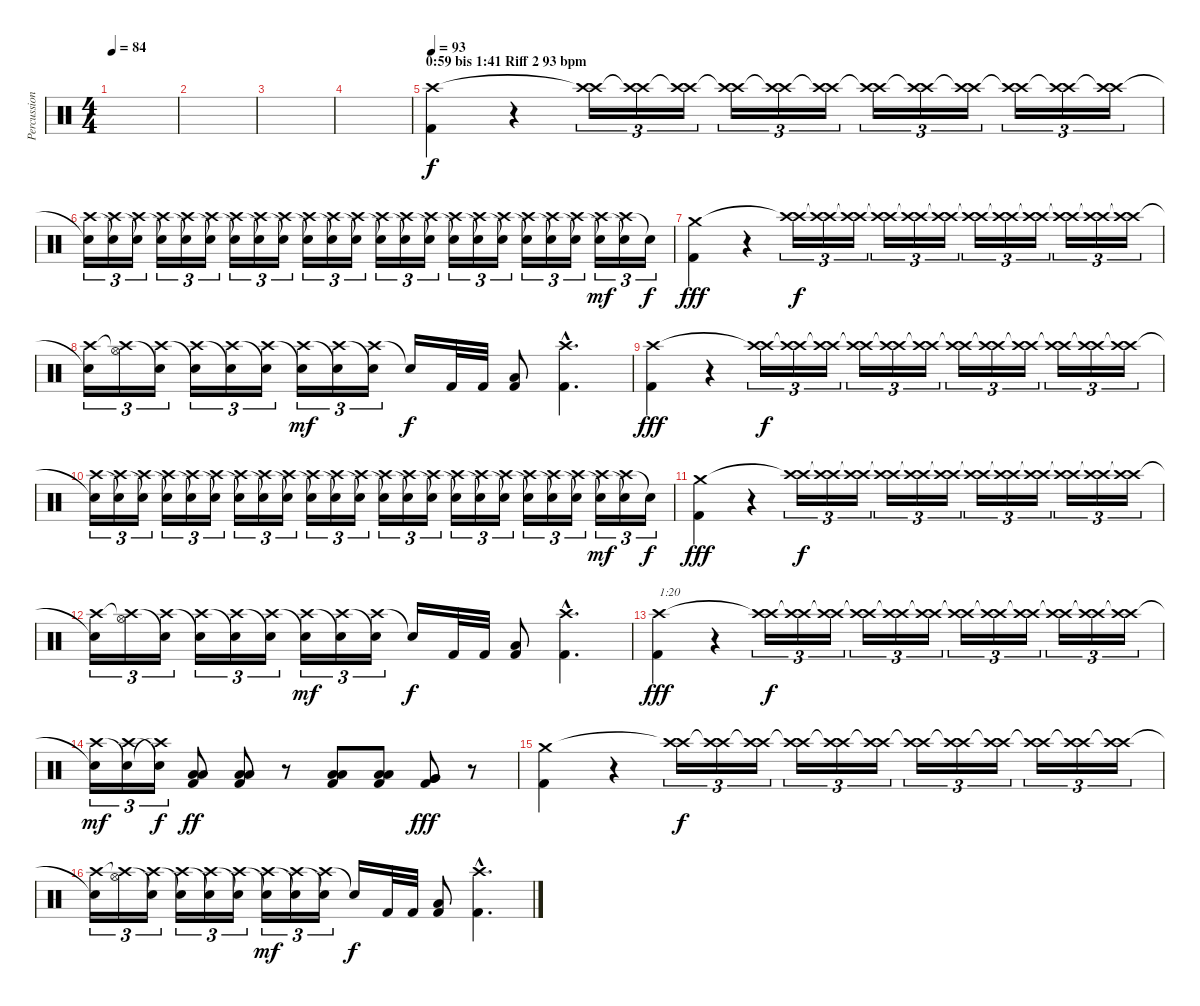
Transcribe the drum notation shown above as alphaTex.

\track ("Percussion" "Percussion") {instrument percussion}
\staff {score}
\articulation defaults
\ts (4 4)
\tempo 84
\clef neutral
\ks c
|
|
|
|
\section ("" "0:59 bis 1:41 Riff 2 93 bpm")
\tempo 93
("Kick (hit) 2" "Crash high (hit)").4 r.4 ("Crash high (hit)" "Crash high (hit)"{t}).16{tu (3 2) dy f volume 3} ("Crash high (hit)"{t} "Crash high (hit)").16{tu (3 2)} ("Crash high (hit)" "Crash high (hit)"{t}).16{tu (3 2)} ("Crash high (hit)"{t} "Crash high (hit)").16{tu (3 2)} ("Crash high (hit)" "Crash high (hit)"{t}).16{tu (3 2) volume 8} ("Crash high (hit)"{t} "Crash high (hit)").16{tu (3 2)} ("Crash high (hit)" "Crash high (hit)"{t}).16{tu (3 2)} ("Crash high (hit)"{t} "Crash high (hit)").16{tu (3 2)} ("Crash high (hit)" "Crash high (hit)"{t}).16{tu (3 2)} ("Crash high (hit)"{t} "Crash high (hit)").16{tu (3 2)} ("Crash high (hit)" "Crash high (hit)"{t}).16{tu (3 2)} ("Crash high (hit)"{t} "Crash high (hit)").16{tu (3 2)} |
("Crash high (hit)" "Snare (hit)"{t}).16{tu (3 2)} ("Snare (hit)"{t} "Crash high (hit)").16{tu (3 2)} ("Crash high (hit)" "Snare (hit)"{t}).16{tu (3 2)} ("Snare (hit)"{t} "Crash high (hit)").16{tu (3 2)} ("Crash high (hit)" "Snare (hit)"{t}).16{tu (3 2)} ("Snare (hit)"{t} "Crash high (hit)").16{tu (3 2)} ("Crash high (hit)" "Snare (hit)"{t}).16{tu (3 2)} ("Snare (hit)"{t} "Crash high (hit)").16{tu (3 2)} ("Crash high (hit)" "Snare (hit)"{t}).16{tu (3 2)} ("Snare (hit)"{t} "Crash high (hit)").16{tu (3 2)} ("Crash high (hit)" "Snare (hit)"{t}).16{tu (3 2)} ("Snare (hit)"{t} "Crash high (hit)").16{tu (3 2) volume 5} ("Crash high (hit)" "Snare (hit)"{t}).16{tu (3 2)} ("Snare (hit)"{t} "Crash high (hit)").16{tu (3 2)} ("Crash high (hit)" "Snare (hit)"{t}).16{tu (3 2)} ("Snare (hit)"{t} "Crash high (hit)").16{tu (3 2)} ("Crash high (hit)" "Snare (hit)"{t}).16{tu (3 2)} ("Snare (hit)"{t} "Crash high (hit)").16{tu (3 2)} ("Crash high (hit)" "Snare (hit)"{t}).16{tu (3 2)} ("Snare (hit)"{t} "Crash high (hit)").16{tu (3 2)} ("Crash high (hit)" "Snare (hit)"{t}).16{tu (3 2)} ("Snare (hit)"{t} "Crash high (hit)").16{tu (3 2) dy mf} ("Crash high (hit)" "Snare (hit)"{t}).16{tu (3 2)} "Snare (hit)"{t}.16{tu (3 2) dy f} |
("Kick (hit) 2" "Crash medium (hit)").4{dy fff volume 13} r.4 ("Crash high (hit)" "Crash high (hit)"{t}).16{tu (3 2) dy f volume 3} ("Crash high (hit)"{t} "Crash high (hit)").16{tu (3 2)} ("Crash high (hit)" "Crash high (hit)"{t}).16{tu (3 2)} ("Crash high (hit)"{t} "Crash high (hit)").16{tu (3 2)} ("Crash high (hit)" "Crash high (hit)"{t}).16{tu (3 2) volume 8} ("Crash high (hit)"{t} "Crash high (hit)").16{tu (3 2)} ("Crash high (hit)" "Crash high (hit)"{t}).16{tu (3 2)} ("Crash high (hit)"{t} "Crash high (hit)").16{tu (3 2)} ("Crash high (hit)" "Crash high (hit)"{t}).16{tu (3 2)} ("Crash high (hit)"{t} "Crash high (hit)").16{tu (3 2)} ("Crash high (hit)" "Crash high (hit)"{t}).16{tu (3 2)} ("Crash high (hit)"{t} "Crash high (hit)").16{tu (3 2)} |
("Crash high (hit)" "Snare (hit)"{t}).16{tu (3 2)} ("Hi-Hat (open)"{t} "Crash high (hit)").16{tu (3 2)} ("Crash high (hit)" "Snare (hit)"{t}).16{tu (3 2)} ("Snare (hit)"{t} "Crash high (hit)").16{tu (3 2)} ("Crash high (hit)" "Snare (hit)"{t}).16{tu (3 2)} ("Snare (hit)"{t} "Crash high (hit)").16{tu (3 2)} ("Crash high (hit)" "Snare (hit)"{t}).16{tu (3 2) dy mf} ("Snare (hit)"{t} "Crash high (hit)").16{tu (3 2)} ("Crash high (hit)" "Snare (hit)"{t}).16{tu (3 2)} "Snare (hit)"{t}.16{dy f} "Kick (hit) 2".32{volume 13} "Kick (hit) 2".32 ("Kick (hit) 2" "Low Tom (hit)").8 ("Kick (hit) 2"{hac} "Crash high (hit)"{hac}).4{d} |
("Kick (hit) 2" "Crash high (hit)").4{dy fff} r.4 ("Crash high (hit)" "Crash high (hit)"{t}).16{tu (3 2) dy f volume 3} ("Crash high (hit)"{t} "Crash high (hit)").16{tu (3 2)} ("Crash high (hit)" "Crash high (hit)"{t}).16{tu (3 2)} ("Crash high (hit)"{t} "Crash high (hit)").16{tu (3 2)} ("Crash high (hit)" "Crash high (hit)"{t}).16{tu (3 2) volume 8} ("Crash high (hit)"{t} "Crash high (hit)").16{tu (3 2)} ("Crash high (hit)" "Crash high (hit)"{t}).16{tu (3 2)} ("Crash high (hit)"{t} "Crash high (hit)").16{tu (3 2)} ("Crash high (hit)" "Crash high (hit)"{t}).16{tu (3 2)} ("Crash high (hit)"{t} "Crash high (hit)").16{tu (3 2)} ("Crash high (hit)" "Crash high (hit)"{t}).16{tu (3 2)} ("Crash high (hit)"{t} "Crash high (hit)").16{tu (3 2)} |
("Crash high (hit)" "Snare (hit)"{t}).16{tu (3 2)} ("Snare (hit)"{t} "Crash high (hit)").16{tu (3 2)} ("Crash high (hit)" "Snare (hit)"{t}).16{tu (3 2)} ("Snare (hit)"{t} "Crash high (hit)").16{tu (3 2)} ("Crash high (hit)" "Snare (hit)"{t}).16{tu (3 2)} ("Snare (hit)"{t} "Crash high (hit)").16{tu (3 2)} ("Crash high (hit)" "Snare (hit)"{t}).16{tu (3 2)} ("Snare (hit)"{t} "Crash high (hit)").16{tu (3 2)} ("Crash high (hit)" "Snare (hit)"{t}).16{tu (3 2)} ("Snare (hit)"{t} "Crash high (hit)").16{tu (3 2)} ("Crash high (hit)" "Snare (hit)"{t}).16{tu (3 2)} ("Snare (hit)"{t} "Crash high (hit)").16{tu (3 2) volume 5} ("Crash high (hit)" "Snare (hit)"{t}).16{tu (3 2)} ("Snare (hit)"{t} "Crash high (hit)").16{tu (3 2)} ("Crash high (hit)" "Snare (hit)"{t}).16{tu (3 2)} ("Snare (hit)"{t} "Crash high (hit)").16{tu (3 2)} ("Crash high (hit)" "Snare (hit)"{t}).16{tu (3 2)} ("Snare (hit)"{t} "Crash high (hit)").16{tu (3 2)} ("Crash high (hit)" "Snare (hit)"{t}).16{tu (3 2)} ("Snare (hit)"{t} "Crash high (hit)").16{tu (3 2)} ("Crash high (hit)" "Snare (hit)"{t}).16{tu (3 2)} ("Snare (hit)"{t} "Crash high (hit)").16{tu (3 2) dy mf} ("Crash high (hit)" "Snare (hit)"{t}).16{tu (3 2)} "Snare (hit)"{t}.16{tu (3 2) dy f} |
("Kick (hit) 2" "Crash medium (hit)").4{dy fff volume 13} r.4 ("Crash high (hit)" "Crash high (hit)"{t}).16{tu (3 2) dy f volume 3} ("Crash high (hit)"{t} "Crash high (hit)").16{tu (3 2)} ("Crash high (hit)" "Crash high (hit)"{t}).16{tu (3 2)} ("Crash high (hit)"{t} "Crash high (hit)").16{tu (3 2)} ("Crash high (hit)" "Crash high (hit)"{t}).16{tu (3 2) volume 8} ("Crash high (hit)"{t} "Crash high (hit)").16{tu (3 2)} ("Crash high (hit)" "Crash high (hit)"{t}).16{tu (3 2)} ("Crash high (hit)"{t} "Crash high (hit)").16{tu (3 2)} ("Crash high (hit)" "Crash high (hit)"{t}).16{tu (3 2)} ("Crash high (hit)"{t} "Crash high (hit)").16{tu (3 2)} ("Crash high (hit)" "Crash high (hit)"{t}).16{tu (3 2)} ("Crash high (hit)"{t} "Crash high (hit)").16{tu (3 2)} |
("Crash high (hit)" "Snare (hit)"{t}).16{tu (3 2)} ("Hi-Hat (open)"{t} "Crash high (hit)").16{tu (3 2)} ("Crash high (hit)" "Snare (hit)"{t}).16{tu (3 2)} ("Snare (hit)"{t} "Crash high (hit)").16{tu (3 2)} ("Crash high (hit)" "Snare (hit)"{t}).16{tu (3 2)} ("Snare (hit)"{t} "Crash high (hit)").16{tu (3 2)} ("Crash high (hit)" "Snare (hit)"{t}).16{tu (3 2) dy mf} ("Snare (hit)"{t} "Crash high (hit)").16{tu (3 2)} ("Crash high (hit)" "Snare (hit)"{t}).16{tu (3 2)} "Snare (hit)"{t}.16{dy f} "Kick (hit) 2".32{volume 13} "Kick (hit) 2".32 ("Kick (hit) 2" "Low Tom (hit)").8 ("Kick (hit) 2"{hac} "Crash high (hit)"{hac}).4{d} |
("Kick (hit) 2" "Crash high (hit)").4{txt "1:20" dy fff} r.4 ("Crash high (hit)" "Crash high (hit)"{t}).16{tu (3 2) dy f volume 3} ("Crash high (hit)"{t} "Crash high (hit)").16{tu (3 2)} ("Crash high (hit)" "Crash high (hit)"{t}).16{tu (3 2)} ("Crash high (hit)"{t} "Crash high (hit)").16{tu (3 2)} ("Crash high (hit)" "Crash high (hit)"{t}).16{tu (3 2) volume 8} ("Crash high (hit)"{t} "Crash high (hit)").16{tu (3 2)} ("Crash high (hit)" "Crash high (hit)"{t}).16{tu (3 2)} ("Crash high (hit)"{t} "Crash high (hit)").16{tu (3 2)} ("Crash high (hit)" "Crash high (hit)"{t}).16{tu (3 2)} ("Crash high (hit)"{t} "Crash high (hit)").16{tu (3 2)} ("Crash high (hit)" "Crash high (hit)"{t}).16{tu (3 2)} ("Crash high (hit)"{t} "Crash high (hit)").16{tu (3 2)} |
("Crash high (hit)" "Snare (hit)"{t}).16{tu (3 2) dy mf} ("Snare (hit)"{t} "Crash high (hit)").16{tu (3 2)} ("Crash high (hit)"{t} "Snare (hit)"{t}).16{tu (3 2) dy f} ("Kick (hit) 2" "Low Tom (hit)" "Low Tom (hit)").8{dy ff volume 13} ("Kick (hit) 2" "Low Tom (hit)" "Low Tom (hit)").8 r.8 ("Kick (hit) 2" "Low Tom (hit)" "Low Tom (hit)").8 ("Kick (hit) 2" "Low Tom (hit)" "Low Tom (hit)").8 ("Kick (hit) 2" "Very Low Tom (hit)" "Very Low Tom (hit)").8{dy fff} r.8 |
("Kick (hit) 2" "Crash medium (hit)").4{volume 13} r.4 ("Crash high (hit)" "Crash high (hit)"{t}).16{tu (3 2) dy f volume 3} ("Crash high (hit)"{t} "Crash high (hit)").16{tu (3 2)} ("Crash high (hit)" "Crash high (hit)"{t}).16{tu (3 2)} ("Crash high (hit)"{t} "Crash high (hit)").16{tu (3 2)} ("Crash high (hit)" "Crash high (hit)"{t}).16{tu (3 2) volume 8} ("Crash high (hit)"{t} "Crash high (hit)").16{tu (3 2)} ("Crash high (hit)" "Crash high (hit)"{t}).16{tu (3 2)} ("Crash high (hit)"{t} "Crash high (hit)").16{tu (3 2)} ("Crash high (hit)" "Crash high (hit)"{t}).16{tu (3 2)} ("Crash high (hit)"{t} "Crash high (hit)").16{tu (3 2)} ("Crash high (hit)" "Crash high (hit)"{t}).16{tu (3 2)} ("Crash high (hit)"{t} "Crash high (hit)").16{tu (3 2)} |
("Crash high (hit)" "Snare (hit)"{t}).16{tu (3 2)} ("Hi-Hat (open)"{t} "Crash high (hit)").16{tu (3 2)} ("Crash high (hit)" "Snare (hit)"{t}).16{tu (3 2)} ("Snare (hit)"{t} "Crash high (hit)").16{tu (3 2)} ("Crash high (hit)" "Snare (hit)"{t}).16{tu (3 2)} ("Snare (hit)"{t} "Crash high (hit)").16{tu (3 2)} ("Crash high (hit)" "Snare (hit)"{t}).16{tu (3 2) dy mf} ("Snare (hit)"{t} "Crash high (hit)").16{tu (3 2)} ("Crash high (hit)" "Snare (hit)"{t}).16{tu (3 2)} "Snare (hit)"{t}.16{dy f} "Kick (hit) 2".32{volume 13} "Kick (hit) 2".32 ("Kick (hit) 2" "Low Tom (hit)").8 ("Kick (hit) 2"{hac} "Crash high (hit)"{hac}).4{d}
